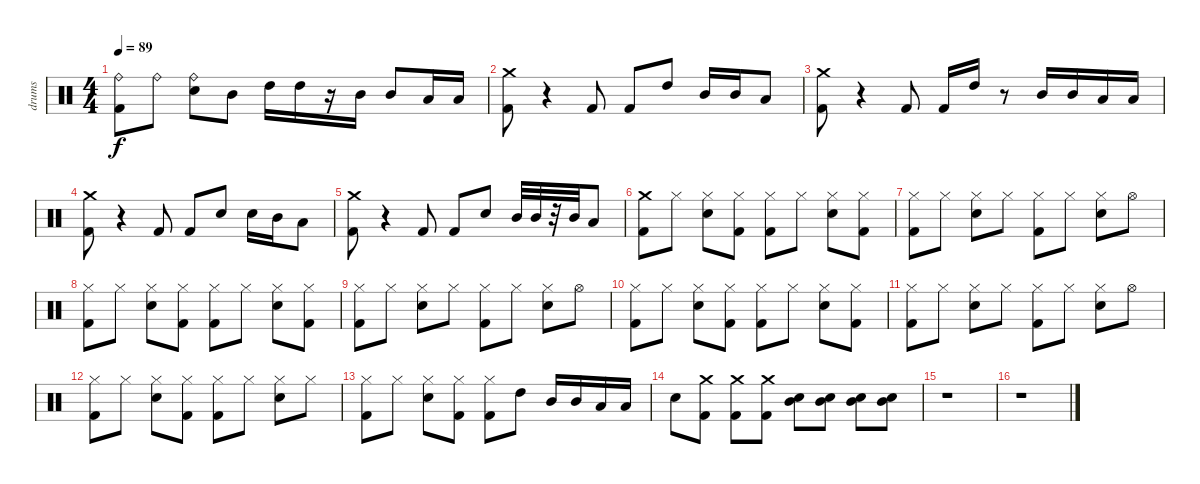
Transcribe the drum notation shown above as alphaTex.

\track ("drums" "drums") {instrument percussion}
\staff {score}
\articulation defaults
\ts (4 4)
\tempo 89
\clef neutral
\ks c
("Kick (hit) 2" "Ride (bell)").8{dy f} "Ride (bell)".8 ("Snare (hit) 2" "Ride (bell)").8 "Mid Tom (hit)".8 "High Tom (hit)".16 "High Tom (hit)".16 r.16 "Mid Tom (hit)".16 "Mid Tom (hit)".8 "Low Tom (hit)".16 "Low Tom (hit)".16 |
("Kick (hit) 2" "Crash medium (hit)").8 r.4 "Kick (hit) 2".8 "Kick (hit) 2".8 "High Tom (hit)".8 "Mid Tom (hit)".16 "Mid Tom (hit)".16 "Low Tom (hit)".8 |
("Kick (hit) 2" "Crash medium (hit)").8 r.4 "Kick (hit) 2".8 "Kick (hit) 2".16 "High Tom (hit)".16 r.8 "Mid Tom (hit)".16 "Mid Tom (hit)".16 "Low Tom (hit)".16 "Low Tom (hit)".16 |
("Kick (hit) 2" "Crash medium (hit)").8 r.4 "Kick (hit) 2".8 "Kick (hit) 2".8 "Snare (hit) 2".8 "Snare (hit) 2".16 "Mid Tom (hit)".16 "Low Tom (hit)".8 |
("Kick (hit) 2" "Crash medium (hit)").8 r.4 "Kick (hit) 2".8 "Kick (hit) 2".8 "Snare (hit) 2".8 "Mid Tom (hit)".32 "Mid Tom (hit)".32 r.32 "Mid Tom (hit)".32 "Low Tom (hit)".8 |
("Kick (hit) 2" "Crash medium (hit)").8 "Hi-Hat (closed)".8 ("Snare (hit) 2" "Hi-Hat (closed)").8 ("Kick (hit) 2" "Hi-Hat (closed)").8 ("Kick (hit) 2" "Hi-Hat (closed)").8 "Hi-Hat (closed)".8 ("Snare (hit) 2" "Hi-Hat (closed)").8 ("Kick (hit) 2" "Hi-Hat (closed)").8 |
("Kick (hit) 2" "Hi-Hat (closed)").8 "Hi-Hat (closed)".8 ("Snare (hit) 2" "Hi-Hat (closed)").8 "Hi-Hat (closed)".8 ("Kick (hit) 2" "Hi-Hat (closed)").8 "Hi-Hat (closed)".8 ("Snare (hit) 2" "Hi-Hat (closed)").8 "Hi-Hat (open)".8 |
("Kick (hit) 2" "Hi-Hat (closed)").8 "Hi-Hat (closed)".8 ("Snare (hit) 2" "Hi-Hat (closed)").8 ("Kick (hit) 2" "Hi-Hat (closed)").8 ("Kick (hit) 2" "Hi-Hat (closed)").8 "Hi-Hat (closed)".8 ("Snare (hit) 2" "Hi-Hat (closed)").8 ("Kick (hit) 2" "Hi-Hat (closed)").8 |
("Kick (hit) 2" "Hi-Hat (closed)").8 "Hi-Hat (closed)".8 ("Snare (hit) 2" "Hi-Hat (closed)").8 "Hi-Hat (closed)".8 ("Kick (hit) 2" "Hi-Hat (closed)").8 "Hi-Hat (closed)".8 ("Snare (hit) 2" "Hi-Hat (closed)").8 "Hi-Hat (open)".8 |
("Kick (hit) 2" "Hi-Hat (closed)").8 "Hi-Hat (closed)".8 ("Snare (hit) 2" "Hi-Hat (closed)").8 ("Kick (hit) 2" "Hi-Hat (closed)").8 ("Kick (hit) 2" "Hi-Hat (closed)").8 "Hi-Hat (closed)".8 ("Snare (hit) 2" "Hi-Hat (closed)").8 ("Kick (hit) 2" "Hi-Hat (closed)").8 |
("Kick (hit) 2" "Hi-Hat (closed)").8 "Hi-Hat (closed)".8 ("Snare (hit) 2" "Hi-Hat (closed)").8 "Hi-Hat (closed)".8 ("Kick (hit) 2" "Hi-Hat (closed)").8 "Hi-Hat (closed)".8 ("Snare (hit) 2" "Hi-Hat (closed)").8 "Hi-Hat (open)".8 |
("Kick (hit) 2" "Hi-Hat (closed)").8 "Hi-Hat (closed)".8 ("Snare (hit) 2" "Hi-Hat (closed)").8 ("Kick (hit) 2" "Hi-Hat (closed)").8 ("Kick (hit) 2" "Hi-Hat (closed)").8 "Hi-Hat (closed)".8 ("Snare (hit) 2" "Hi-Hat (closed)").8 "Hi-Hat (closed)".8 |
("Kick (hit) 2" "Hi-Hat (closed)").8 "Hi-Hat (closed)".8 ("Snare (hit) 2" "Hi-Hat (closed)").8 ("Kick (hit) 2" "Hi-Hat (closed)").8 ("Kick (hit) 2" "Hi-Hat (closed)").8 "High Tom (hit)".8 "Mid Tom (hit)".16 "Mid Tom (hit)".16 "Low Tom (hit)".16 "Low Tom (hit)".16 |
"Snare (hit) 2".8 ("Crash medium (hit)" "Kick (hit) 2").8 ("Crash medium (hit)" "Kick (hit) 2").8 ("Crash medium (hit)" "Kick (hit) 2").8 ("Mid Tom (hit)" "Snare (hit) 2").8 ("Mid Tom (hit)" "Snare (hit) 2").8 ("Mid Tom (hit)" "Snare (hit) 2").8 ("Mid Tom (hit)" "Snare (hit) 2").8 |
r.1 |
r.1
